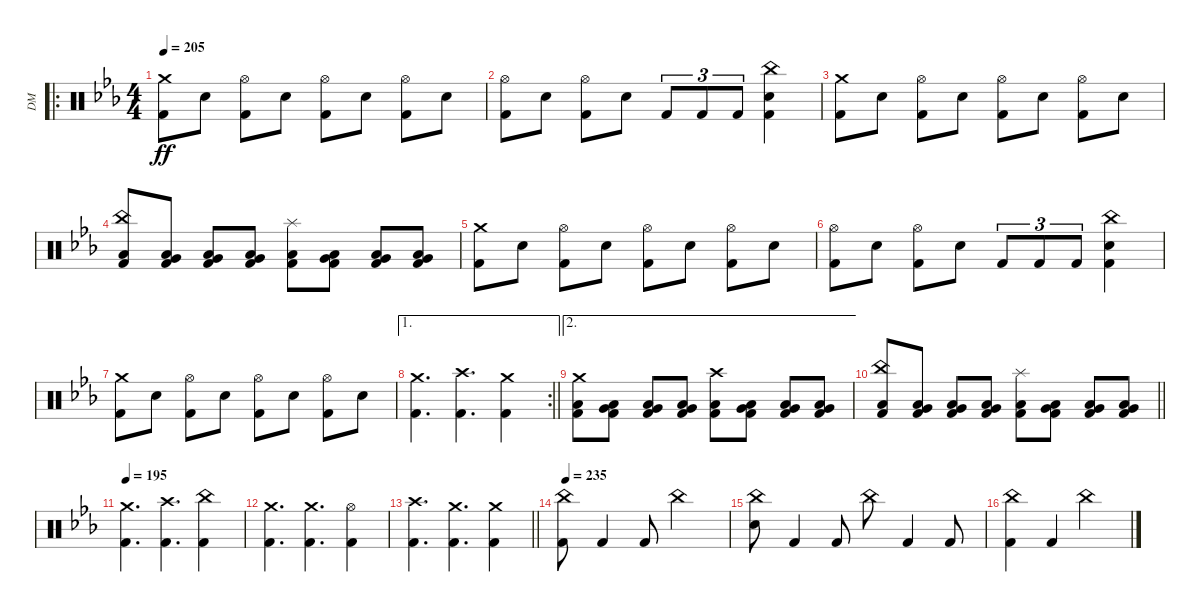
\track ("DM" "DM") {instrument percussion}
\staff {score}
\articulation defaults
\ro
\ts (4 4)
\section ("" "")
\tempo 205
\clef neutral
\ks cminor
("Crash medium (hit)" "Kick (hit) 2").8{dy ff} "Electric Snare (hit)".8 ("Hi-Hat (open)" "Kick (hit) 2").8 "Electric Snare (hit)".8 ("Hi-Hat (open)" "Kick (hit) 2").8 "Electric Snare (hit)".8 ("Hi-Hat (open)" "Kick (hit) 2").8 "Electric Snare (hit)".8 |
("Hi-Hat (open)" "Kick (hit) 2").8 "Electric Snare (hit)".8 ("Hi-Hat (open)" "Kick (hit) 2").8 "Electric Snare (hit)".8 "Kick (hit) 2".8{tu (3 2)} "Kick (hit) 2".8{tu (3 2)} "Kick (hit) 2".8{tu (3 2)} ("China (hit)" "Electric Snare (hit)" "Kick (hit) 2").4 |
("Crash medium (hit)" "Kick (hit) 2").8 "Electric Snare (hit)".8 ("Hi-Hat (open)" "Kick (hit) 2").8 "Electric Snare (hit)".8 ("Hi-Hat (open)" "Kick (hit) 2").8 "Electric Snare (hit)".8 ("Hi-Hat (open)" "Kick (hit) 2").8 "Electric Snare (hit)".8 |
("China (hit)" "Low Floor Tom (hit)" "Kick (hit) 2").8 ("Very Low Tom (hit)" "Low Floor Tom (hit)" "Kick (hit) 2").8 ("Very Low Tom (hit)" "Low Floor Tom (hit)" "Kick (hit) 2").8 ("Very Low Tom (hit)" "Low Floor Tom (hit)" "Kick (hit) 2").8 ("Splash (hit)" "Low Floor Tom (hit)" "Kick (hit) 2").8 ("Very Low Tom (hit)" "Low Floor Tom (hit)" "Kick (hit) 2").8 ("Very Low Tom (hit)" "Low Floor Tom (hit)" "Kick (hit) 2").8 ("Very Low Tom (hit)" "Low Floor Tom (hit)" "Kick (hit) 2").8 |
("Crash medium (hit)" "Kick (hit) 2").8 "Electric Snare (hit)".8 ("Hi-Hat (open)" "Kick (hit) 2").8 "Electric Snare (hit)".8 ("Hi-Hat (open)" "Kick (hit) 2").8 "Electric Snare (hit)".8 ("Hi-Hat (open)" "Kick (hit) 2").8 "Electric Snare (hit)".8 |
("Hi-Hat (open)" "Kick (hit) 2").8 "Electric Snare (hit)".8 ("Hi-Hat (open)" "Kick (hit) 2").8 "Electric Snare (hit)".8 "Kick (hit) 2".8{tu (3 2)} "Kick (hit) 2".8{tu (3 2)} "Kick (hit) 2".8{tu (3 2)} ("China (hit)" "Electric Snare (hit)" "Kick (hit) 2").4 |
("Crash medium (hit)" "Kick (hit) 2").8 "Electric Snare (hit)".8 ("Hi-Hat (open)" "Kick (hit) 2").8 "Electric Snare (hit)".8 ("Hi-Hat (open)" "Kick (hit) 2").8 "Electric Snare (hit)".8 ("Hi-Hat (open)" "Kick (hit) 2").8 "Electric Snare (hit)".8 |
\ae 1
\rc 2
\barLineRight lightlight
("Crash medium (hit)" "Kick (hit) 2").4{d} ("Crash high (hit)" "Kick (hit) 2").4{d} ("Crash medium (hit)" "Kick (hit) 2").4 |
\ae 2
\section ("" "")
("Crash medium (hit)" "Low Floor Tom (hit)" "Kick (hit) 2").8 ("Very Low Tom (hit)" "Low Floor Tom (hit)" "Kick (hit) 2").8 ("Very Low Tom (hit)" "Low Floor Tom (hit)" "Kick (hit) 2").8 ("Very Low Tom (hit)" "Low Floor Tom (hit)" "Kick (hit) 2").8 ("Crash high (hit)" "Low Floor Tom (hit)" "Kick (hit) 2").8 ("Very Low Tom (hit)" "Low Floor Tom (hit)" "Kick (hit) 2").8 ("Very Low Tom (hit)" "Low Floor Tom (hit)" "Kick (hit) 2").8 ("Very Low Tom (hit)" "Low Floor Tom (hit)" "Kick (hit) 2").8 |
\barLineRight lightlight
("China (hit)" "Low Floor Tom (hit)" "Kick (hit) 2").8 ("Very Low Tom (hit)" "Low Floor Tom (hit)" "Kick (hit) 2").8 ("Very Low Tom (hit)" "Low Floor Tom (hit)" "Kick (hit) 2").8 ("Very Low Tom (hit)" "Low Floor Tom (hit)" "Kick (hit) 2").8 ("Splash (hit)" "Low Floor Tom (hit)" "Kick (hit) 2").8 ("Very Low Tom (hit)" "Low Floor Tom (hit)" "Kick (hit) 2").8 ("Very Low Tom (hit)" "Low Floor Tom (hit)" "Kick (hit) 2").8 ("Very Low Tom (hit)" "Low Floor Tom (hit)" "Kick (hit) 2").8 |
\section ("" "")
\tempo 195
("Crash medium (hit)" "Kick (hit) 2").4{d} ("Crash high (hit)" "Kick (hit) 2").4{d} ("China (hit)" "Kick (hit) 2").4 |
("Crash medium (hit)" "Kick (hit) 2").4{d} ("Crash medium (hit)" "Kick (hit) 2").4{d} ("Hi-Hat (open)" "Kick (hit) 2").4 |
\barLineRight lightlight
("Crash high (hit)" "Kick (hit) 2").4{d} ("Crash medium (hit)" "Kick (hit) 2").4{d} ("Crash medium (hit)" "Kick (hit) 2").4 |
\section ("" "")
\tempo 235
("China (hit)" "Kick (hit) 2").8 "Kick (hit) 2".4 "Kick (hit) 2".8 "China (hit)".2 |
("China (hit)" "Electric Snare (hit)").8 "Kick (hit) 2".4 "Kick (hit) 2".8 "China (hit)".8 "Kick (hit) 2".4 "Kick (hit) 2".8 |
("China (hit)" "Kick (hit) 2").4 "Kick (hit) 2".4 "China (hit)".2
